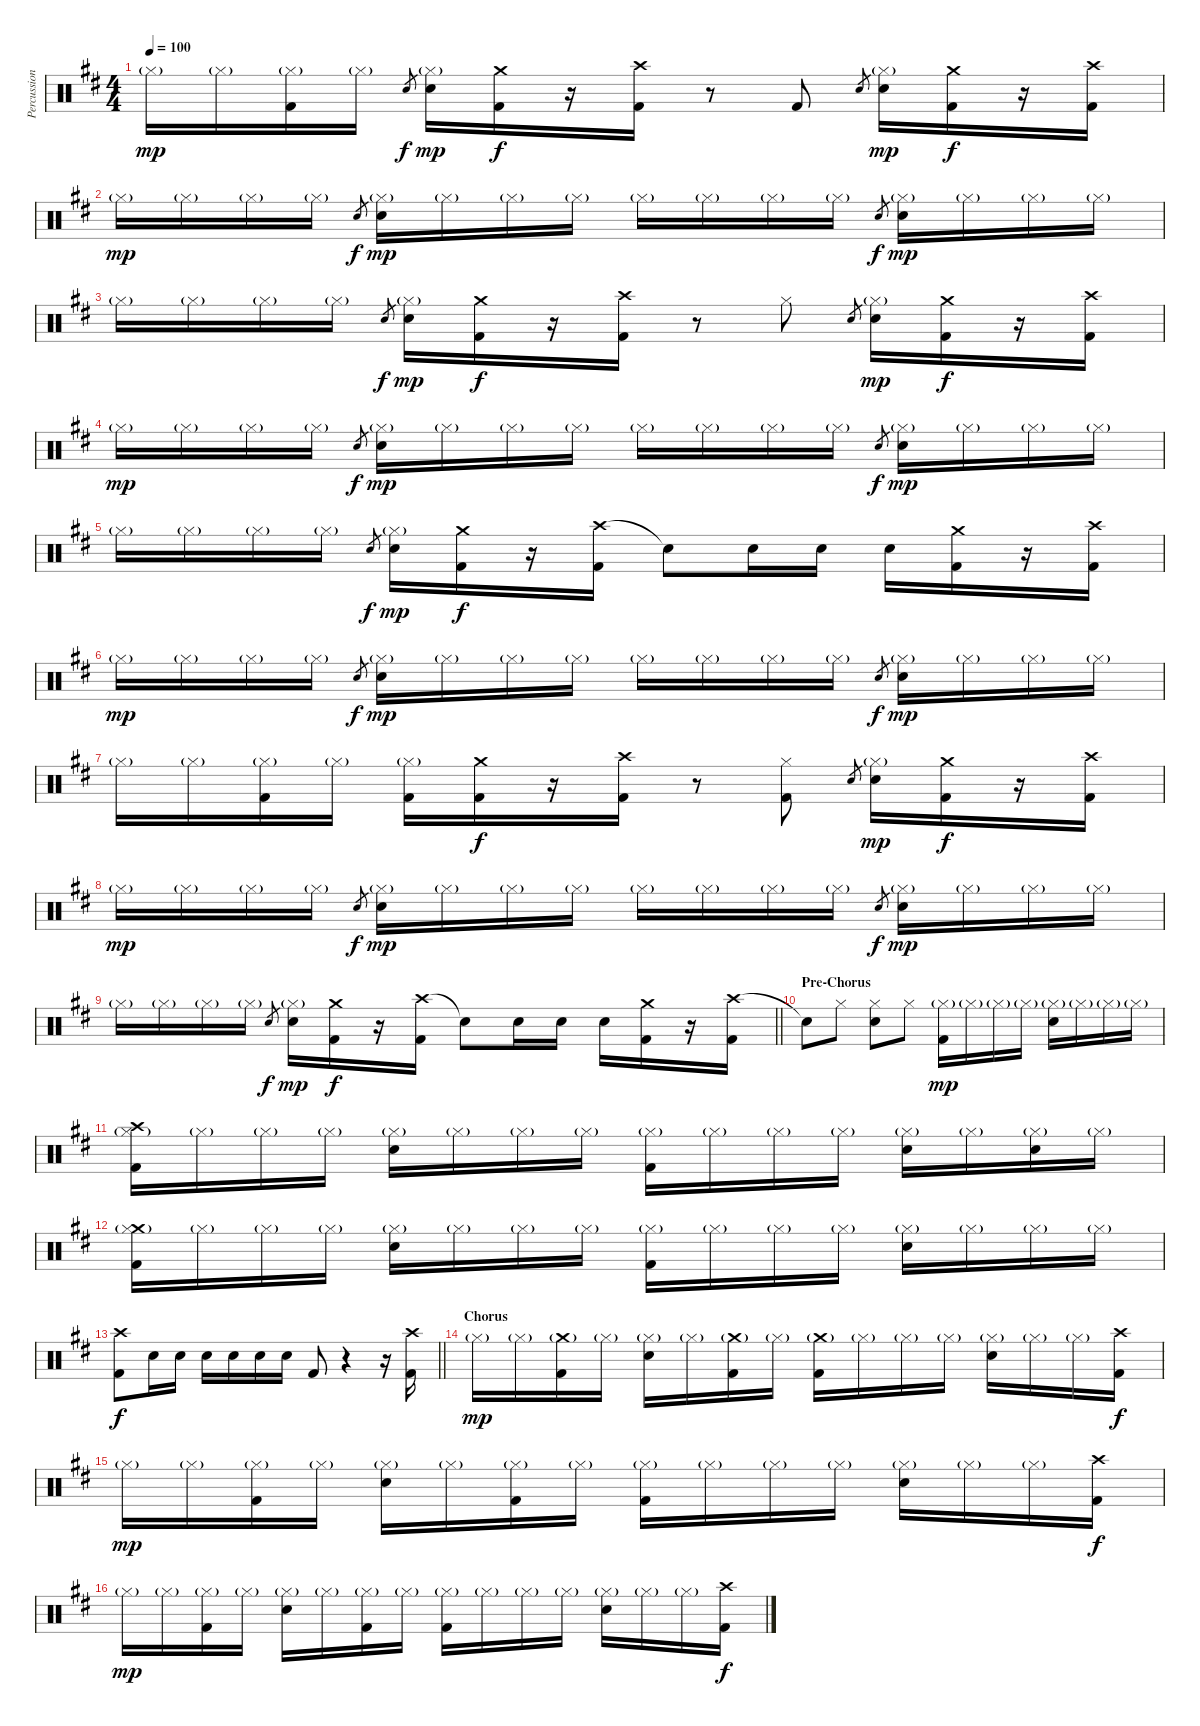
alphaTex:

\track ("Percussion" "Percussion") {instrument percussion}
\staff {score}
\articulation defaults
\ts (4 4)
\tempo 100
\clef neutral
\ks bminor "Hi-Hat (closed)"{g}.16{dy mp} "Hi-Hat (closed)"{g}.16
("Hi-Hat (closed)"{g} "Kick (hit) 2").16 "Hi-Hat (closed)"{g}.16 "Snare (hit) 2"{x}.8{gr dy f} ("Hi-Hat (closed)"{g} "Snare (hit) 2").16{dy mp} ("Crash medium (hit)" "Kick (hit) 2").16{dy f} r.16 ("Crash high (hit)" "Kick (hit) 2").16 r.8 "Kick (hit) 2".8 "Snare (hit) 2".8{gr} ("Hi-Hat (closed)"{g} "Snare (hit) 2").16{dy mp} ("Crash medium (hit)" "Kick (hit) 2").16{dy f} r.16 ("Crash high (hit)" "Kick (hit) 2").16 |
"Hi-Hat (closed)"{g}.16{dy mp} "Hi-Hat (closed)"{g}.16 "Hi-Hat (closed)"{g}.16 "Hi-Hat (closed)"{g}.16 "Snare (hit) 2"{x}.8{gr dy f} ("Hi-Hat (closed)"{g} "Snare (hit) 2").16{dy mp} "Hi-Hat (closed)"{g}.16 "Hi-Hat (closed)"{g}.16 "Hi-Hat (closed)"{g}.16 "Hi-Hat (closed)"{g}.16 "Hi-Hat (closed)"{g}.16 "Hi-Hat (closed)"{g}.16 "Hi-Hat (closed)"{g}.16 "Snare (hit) 2".8{gr dy f} ("Hi-Hat (closed)"{g} "Snare (hit) 2").16{dy mp} "Hi-Hat (closed)"{g}.16 "Hi-Hat (closed)"{g}.16 "Hi-Hat (closed)"{g}.16 |
"Hi-Hat (closed)"{g}.16 "Hi-Hat (closed)"{g}.16 "Hi-Hat (closed)"{g}.16 "Hi-Hat (closed)"{g}.16 "Snare (hit) 2"{x}.8{gr dy f} ("Hi-Hat (closed)"{g} "Snare (hit) 2").16{dy mp} ("Crash medium (hit)" "Kick (hit) 2").16{dy f} r.16 ("Crash high (hit)" "Kick (hit) 2").16 r.8 "Hi-Hat (closed)".8 "Snare (hit) 2".8{gr} ("Hi-Hat (closed)"{g} "Snare (hit) 2").16{dy mp} ("Crash medium (hit)" "Kick (hit) 2").16{dy f} r.16 ("Crash high (hit)" "Kick (hit) 2").16 |
"Hi-Hat (closed)"{g}.16{dy mp} "Hi-Hat (closed)"{g}.16 "Hi-Hat (closed)"{g}.16 "Hi-Hat (closed)"{g}.16 "Snare (hit) 2"{x}.8{gr dy f} ("Hi-Hat (closed)"{g} "Snare (hit) 2").16{dy mp} "Hi-Hat (closed)"{g}.16 "Hi-Hat (closed)"{g}.16 "Hi-Hat (closed)"{g}.16 "Hi-Hat (closed)"{g}.16 "Hi-Hat (closed)"{g}.16 "Hi-Hat (closed)"{g}.16 "Hi-Hat (closed)"{g}.16 "Snare (hit) 2".8{gr dy f} ("Hi-Hat (closed)"{g} "Snare (hit) 2").16{dy mp} "Hi-Hat (closed)"{g}.16 "Hi-Hat (closed)"{g}.16 "Hi-Hat (closed)"{g}.16 |
"Hi-Hat (closed)"{g}.16 "Hi-Hat (closed)"{g}.16 "Hi-Hat (closed)"{g}.16 "Hi-Hat (closed)"{g}.16 "Snare (hit) 2"{x}.8{gr dy f} ("Hi-Hat (closed)"{g} "Snare (hit) 2").16{dy mp} ("Crash medium (hit)" "Kick (hit) 2").16{dy f} r.16 ("Crash high (hit)" "Kick (hit) 2").16 "Snare (hit)"{t}.8 "Snare (hit) 2".16 "Snare (hit) 2".16 "Snare (hit) 2".16 ("Crash medium (hit)" "Kick (hit) 2").16 r.16 ("Crash high (hit)" "Kick (hit) 2").16 |
"Hi-Hat (closed)"{g}.16{dy mp} "Hi-Hat (closed)"{g}.16 "Hi-Hat (closed)"{g}.16 "Hi-Hat (closed)"{g}.16 "Snare (hit) 2"{x}.8{gr dy f} ("Hi-Hat (closed)"{g} "Snare (hit) 2").16{dy mp} "Hi-Hat (closed)"{g}.16 "Hi-Hat (closed)"{g}.16 "Hi-Hat (closed)"{g}.16 "Hi-Hat (closed)"{g}.16 "Hi-Hat (closed)"{g}.16 "Hi-Hat (closed)"{g}.16 "Hi-Hat (closed)"{g}.16 "Snare (hit) 2".8{gr dy f} ("Hi-Hat (closed)"{g} "Snare (hit) 2").16{dy mp} "Hi-Hat (closed)"{g}.16 "Hi-Hat (closed)"{g}.16 "Hi-Hat (closed)"{g}.16 |
"Hi-Hat (closed)"{g}.16 "Hi-Hat (closed)"{g}.16 ("Hi-Hat (closed)"{g} "Kick (hit) 2").16 "Hi-Hat (closed)"{g}.16 ("Hi-Hat (closed)"{g} "Kick (hit) 2").16 ("Crash medium (hit)" "Kick (hit) 2").16{dy f} r.16 ("Crash high (hit)" "Kick (hit) 2").16 r.8 ("Hi-Hat (closed)" "Kick (hit) 2").8 "Snare (hit) 2".8{gr} ("Hi-Hat (closed)"{g} "Snare (hit) 2").16{dy mp} ("Crash medium (hit)" "Kick (hit) 2").16{dy f} r.16 ("Crash high (hit)" "Kick (hit) 2").16 |
"Hi-Hat (closed)"{g}.16{dy mp} "Hi-Hat (closed)"{g}.16 "Hi-Hat (closed)"{g}.16 "Hi-Hat (closed)"{g}.16 "Snare (hit) 2"{x}.8{gr dy f} ("Hi-Hat (closed)"{g} "Snare (hit) 2").16{dy mp} "Hi-Hat (closed)"{g}.16 "Hi-Hat (closed)"{g}.16 "Hi-Hat (closed)"{g}.16 "Hi-Hat (closed)"{g}.16 "Hi-Hat (closed)"{g}.16 "Hi-Hat (closed)"{g}.16 "Hi-Hat (closed)"{g}.16 "Snare (hit) 2".8{gr dy f} ("Hi-Hat (closed)"{g} "Snare (hit) 2").16{dy mp} "Hi-Hat (closed)"{g}.16 "Hi-Hat (closed)"{g}.16 "Hi-Hat (closed)"{g}.16 |
\barLineRight lightlight "Hi-Hat (closed)"{g}.16 "Hi-Hat (closed)"{g}.16 "Hi-Hat (closed)"{g}.16 "Hi-Hat (closed)"{g}.16 "Snare (hit) 2"{x}.8{gr dy f}
("Hi-Hat (closed)"{g} "Snare (hit) 2").16{dy mp} ("Crash medium (hit)" "Kick (hit) 2").16{dy f} r.16 ("Crash high (hit)" "Kick (hit) 2").16 "Snare (hit)"{t}.8 "Snare (hit) 2".16 "Snare (hit) 2".16 "Snare (hit) 2".16 ("Crash medium (hit)" "Kick (hit) 2").16 r.16 ("Crash high (hit)" "Kick (hit) 2").16 |
\section ("" "Pre-Chorus")
"Snare (hit)"{t}.8 "Hi-Hat (closed)".8 ("Hi-Hat (closed)" "Snare (hit) 2").8 "Hi-Hat (closed)".8 ("Hi-Hat (closed)"{g} "Kick (hit) 2").16{dy mp} "Hi-Hat (closed)"{g}.16 "Hi-Hat (closed)"{g}.16 "Hi-Hat (closed)"{g}.16 ("Hi-Hat (closed)"{g} "Snare (hit) 2").16 "Hi-Hat (closed)"{g}.16 "Hi-Hat (closed)"{g}.16 "Hi-Hat (closed)"{g}.16 |
("Crash high (hit)" "Hi-Hat (closed)"{g} "Kick (hit) 2").16 "Hi-Hat (closed)"{g}.16 "Hi-Hat (closed)"{g}.16 "Hi-Hat (closed)"{g}.16 ("Hi-Hat (closed)"{g} "Snare (hit) 2").16 "Hi-Hat (closed)"{g}.16 "Hi-Hat (closed)"{g}.16 "Hi-Hat (closed)"{g}.16 ("Hi-Hat (closed)"{g} "Kick (hit) 2").16 "Hi-Hat (closed)"{g}.16 "Hi-Hat (closed)"{g}.16 "Hi-Hat (closed)"{g}.16 ("Hi-Hat (closed)"{g} "Snare (hit) 2").16 "Hi-Hat (closed)"{g}.16 ("Hi-Hat (closed)"{g} "Snare (hit) 2").16 "Hi-Hat (closed)"{g}.16 |
("Crash medium (hit)" "Hi-Hat (closed)"{g} "Kick (hit) 2").16 "Hi-Hat (closed)"{g}.16 "Hi-Hat (closed)"{g}.16 "Hi-Hat (closed)"{g}.16 ("Hi-Hat (closed)"{g} "Snare (hit) 2").16 "Hi-Hat (closed)"{g}.16 "Hi-Hat (closed)"{g}.16 "Hi-Hat (closed)"{g}.16 ("Hi-Hat (closed)"{g} "Kick (hit) 2").16 "Hi-Hat (closed)"{g}.16 "Hi-Hat (closed)"{g}.16 "Hi-Hat (closed)"{g}.16 ("Hi-Hat (closed)"{g} "Snare (hit) 2").16 "Hi-Hat (closed)"{g}.16 "Hi-Hat (closed)"{g}.16 "Hi-Hat (closed)"{g}.16 |
\barLineRight lightlight
("Crash high (hit)" "Kick (hit) 2").8{dy f} "Snare (hit) 2".16 "Snare (hit) 2".16 "Snare (hit) 2".16 "Snare (hit) 2".16 "Snare (hit) 2".16 "Snare (hit) 2".16 "Kick (hit) 2".8 r.4 r.16 ("Crash high (hit)" "Kick (hit) 2").16 |
\section ("" "Chorus")
"Hi-Hat (closed)"{g}.16{dy mp} "Hi-Hat (closed)"{g}.16 ("Crash medium (hit)"{g} "Kick (hit) 2").16 "Hi-Hat (closed)"{g}.16 ("Hi-Hat (closed)"{g} "Snare (hit) 2").16 "Hi-Hat (closed)"{g}.16 ("Crash medium (hit)"{g} "Kick (hit) 2").16 "Hi-Hat (closed)"{g}.16 ("Crash medium (hit)"{g} "Kick (hit) 2").16 "Hi-Hat (closed)"{g}.16 "Hi-Hat (closed)"{g}.16 "Hi-Hat (closed)"{g}.16 ("Hi-Hat (closed)"{g} "Snare (hit) 2").16 "Hi-Hat (closed)"{g}.16 "Hi-Hat (closed)"{g}.16 ("Crash high (hit)" "Kick (hit) 2").16{dy f} |
"Hi-Hat (closed)"{g}.16{dy mp} "Hi-Hat (closed)"{g}.16 ("Hi-Hat (closed)"{g} "Kick (hit) 2").16 "Hi-Hat (closed)"{g}.16 ("Hi-Hat (closed)"{g} "Snare (hit) 2").16 "Hi-Hat (closed)"{g}.16 ("Hi-Hat (closed)"{g} "Kick (hit) 2").16 "Hi-Hat (closed)"{g}.16 ("Hi-Hat (closed)"{g} "Kick (hit) 2").16 "Hi-Hat (closed)"{g}.16 "Hi-Hat (closed)"{g}.16 "Hi-Hat (closed)"{g}.16 ("Hi-Hat (closed)"{g} "Snare (hit) 2").16 "Hi-Hat (closed)"{g}.16 "Hi-Hat (closed)"{g}.16 ("Crash high (hit)" "Kick (hit) 2").16{dy f} |
"Hi-Hat (closed)"{g}.16{dy mp} "Hi-Hat (closed)"{g}.16 ("Hi-Hat (closed)"{g} "Kick (hit) 2").16 "Hi-Hat (closed)"{g}.16 ("Hi-Hat (closed)"{g} "Snare (hit) 2").16 "Hi-Hat (closed)"{g}.16 ("Hi-Hat (closed)"{g} "Kick (hit) 2").16 "Hi-Hat (closed)"{g}.16 ("Hi-Hat (closed)"{g} "Kick (hit) 2").16 "Hi-Hat (closed)"{g}.16 "Hi-Hat (closed)"{g}.16 "Hi-Hat (closed)"{g}.16 ("Hi-Hat (closed)"{g} "Snare (hit) 2").16 "Hi-Hat (closed)"{g}.16 "Hi-Hat (closed)"{g}.16 ("Crash high (hit)" "Kick (hit) 2").16{dy f}
